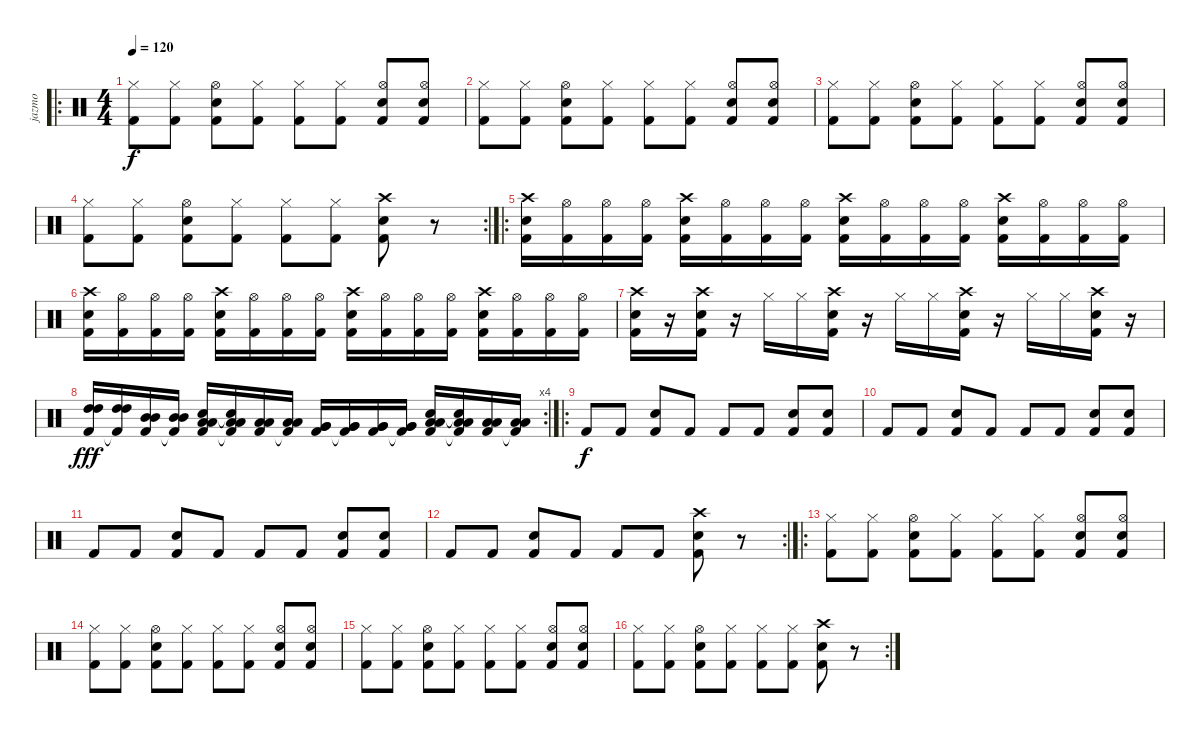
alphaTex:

\track ("jazmo" "jazmo") {instrument percussion}
\staff {score}
\articulation defaults
\ro
\ts (4 4)
\tempo 120
\clef neutral
\ks c
("Hi-Hat (closed)" "Kick (hit) 2").8{dy f} ("Hi-Hat (closed)" "Kick (hit) 2").8 ("Hi-Hat (open)" "Electric Snare (hit)" "Kick (hit) 2").8 ("Hi-Hat (closed)" "Kick (hit) 2").8 ("Hi-Hat (closed)" "Kick (hit) 2").8 ("Hi-Hat (closed)" "Kick (hit) 2").8 ("Hi-Hat (open)" "Electric Snare (hit)" "Kick (hit) 2").8 ("Hi-Hat (open)" "Electric Snare (hit)" "Kick (hit) 2").8 |
("Hi-Hat (closed)" "Kick (hit) 2").8 ("Hi-Hat (closed)" "Kick (hit) 2").8 ("Hi-Hat (open)" "Electric Snare (hit)" "Kick (hit) 2").8 ("Hi-Hat (closed)" "Kick (hit) 2").8 ("Hi-Hat (closed)" "Kick (hit) 2").8 ("Hi-Hat (closed)" "Kick (hit) 2").8 ("Hi-Hat (open)" "Electric Snare (hit)" "Kick (hit) 2").8 ("Hi-Hat (open)" "Electric Snare (hit)" "Kick (hit) 2").8 |
("Hi-Hat (closed)" "Kick (hit) 2").8 ("Hi-Hat (closed)" "Kick (hit) 2").8 ("Hi-Hat (open)" "Electric Snare (hit)" "Kick (hit) 2").8 ("Hi-Hat (closed)" "Kick (hit) 2").8 ("Hi-Hat (closed)" "Kick (hit) 2").8 ("Hi-Hat (closed)" "Kick (hit) 2").8 ("Hi-Hat (open)" "Electric Snare (hit)" "Kick (hit) 2").8 ("Hi-Hat (open)" "Electric Snare (hit)" "Kick (hit) 2").8 |
\rc 2
("Hi-Hat (closed)" "Kick (hit) 2").8 ("Hi-Hat (closed)" "Kick (hit) 2").8 ("Hi-Hat (open)" "Electric Snare (hit)" "Kick (hit) 2").8 ("Hi-Hat (closed)" "Kick (hit) 2").8 ("Hi-Hat (closed)" "Kick (hit) 2").8 ("Hi-Hat (closed)" "Kick (hit) 2").8 ("Crash high (hit)" "Electric Snare (hit)" "Kick (hit) 2").8 r.8 |
\ro
("Crash high (hit)" "Electric Snare (hit)" "Kick (hit) 2").16 ("Hi-Hat (open)" "Kick (hit) 2").16 ("Hi-Hat (open)" "Kick (hit) 2").16 ("Hi-Hat (open)" "Kick (hit) 2").16 ("Crash high (hit)" "Electric Snare (hit)" "Kick (hit) 2").16 ("Hi-Hat (open)" "Kick (hit) 2").16 ("Hi-Hat (open)" "Kick (hit) 2").16 ("Hi-Hat (open)" "Kick (hit) 2").16 ("Crash high (hit)" "Electric Snare (hit)" "Kick (hit) 2").16 ("Hi-Hat (open)" "Kick (hit) 2").16 ("Hi-Hat (open)" "Kick (hit) 2").16 ("Hi-Hat (open)" "Kick (hit) 2").16 ("Crash high (hit)" "Electric Snare (hit)" "Kick (hit) 2").16 ("Hi-Hat (open)" "Kick (hit) 2").16 ("Hi-Hat (open)" "Kick (hit) 2").16 ("Hi-Hat (open)" "Kick (hit) 2").16 |
("Crash high (hit)" "Electric Snare (hit)" "Kick (hit) 2").16 ("Hi-Hat (open)" "Kick (hit) 2").16 ("Hi-Hat (open)" "Kick (hit) 2").16 ("Hi-Hat (open)" "Kick (hit) 2").16 ("Crash high (hit)" "Electric Snare (hit)" "Kick (hit) 2").16 ("Hi-Hat (open)" "Kick (hit) 2").16 ("Hi-Hat (open)" "Kick (hit) 2").16 ("Hi-Hat (open)" "Kick (hit) 2").16 ("Crash high (hit)" "Electric Snare (hit)" "Kick (hit) 2").16 ("Hi-Hat (open)" "Kick (hit) 2").16 ("Hi-Hat (open)" "Kick (hit) 2").16 ("Hi-Hat (open)" "Kick (hit) 2").16 ("Crash high (hit)" "Electric Snare (hit)" "Kick (hit) 2").16 ("Hi-Hat (open)" "Kick (hit) 2").16 ("Hi-Hat (open)" "Kick (hit) 2").16 ("Hi-Hat (open)" "Kick (hit) 2").16 |
("Crash high (hit)" "Electric Snare (hit)" "Kick (hit) 2").16 r.16 ("Crash high (hit)" "Electric Snare (hit)" "Kick (hit) 2").16 r.16 "Hi-Hat (closed)".16 "Hi-Hat (closed)".16 ("Crash high (hit)" "Electric Snare (hit)" "Kick (hit) 2").16 r.16 "Hi-Hat (closed)".16 "Hi-Hat (closed)".16 ("Crash high (hit)" "Electric Snare (hit)" "Kick (hit) 2").16 r.16 "Hi-Hat (closed)".16 "Hi-Hat (closed)".16 ("Crash high (hit)" "Electric Snare (hit)" "Kick (hit) 2").16 r.16 |
\rc 4
("High Tom (hit)" "High Tom (hit)" "Kick (hit) 2").16{dy fff} ("High Tom (hit)" "High Tom (hit)" "Kick (hit) 2"{t}).16 ("Mid Tom (hit)" "Mid Tom (hit)" "Kick (hit) 2").16 ("Mid Tom (hit)" "Mid Tom (hit)" "Kick (hit) 2"{t}).16 ("Low Tom (hit)" "Low Tom (hit)" "Electric Snare (hit)" "Kick (hit) 2").16 ("Low Tom (hit)" "Low Tom (hit)" "Snare (hit)"{t} "Kick (hit) 2"{t}).16 ("Low Tom (hit)" "Low Tom (hit)" "Kick (hit) 2").16 ("Low Tom (hit)" "Low Tom (hit)" "Kick (hit) 2"{t}).16 ("Very Low Tom (hit)" "Very Low Tom (hit)" "Kick (hit) 2").16 ("Very Low Tom (hit)" "Very Low Tom (hit)" "Kick (hit) 2"{t}).16 ("Very Low Tom (hit)" "Very Low Tom (hit)" "Kick (hit) 2").16 ("Very Low Tom (hit)" "Very Low Tom (hit)" "Kick (hit) 2"{t}).16 ("Low Floor Tom (hit)" "Low Floor Tom (hit)" "Electric Snare (hit)" "Kick (hit) 2").16 ("Low Floor Tom (hit)" "Low Floor Tom (hit)" "Electric Snare (hit)"{t} "Kick (hit) 2"{t}).16 ("Low Floor Tom (hit)" "Low Floor Tom (hit)" "Kick (hit) 2").16 ("Low Floor Tom (hit)" "Low Floor Tom (hit)" "Kick (hit) 2"{t}).16 |
\ro "Kick (hit) 2".8{dy f} "Kick (hit) 2".8
("Electric Snare (hit)" "Kick (hit) 2").8 "Kick (hit) 2".8 "Kick (hit) 2".8 "Kick (hit) 2".8 ("Electric Snare (hit)" "Kick (hit) 2").8 ("Electric Snare (hit)" "Kick (hit) 2").8 |
"Kick (hit) 2".8 "Kick (hit) 2".8 ("Electric Snare (hit)" "Kick (hit) 2").8 "Kick (hit) 2".8 "Kick (hit) 2".8 "Kick (hit) 2".8 ("Electric Snare (hit)" "Kick (hit) 2").8 ("Electric Snare (hit)" "Kick (hit) 2").8 |
"Kick (hit) 2".8 "Kick (hit) 2".8 ("Electric Snare (hit)" "Kick (hit) 2").8 "Kick (hit) 2".8 "Kick (hit) 2".8 "Kick (hit) 2".8 ("Electric Snare (hit)" "Kick (hit) 2").8 ("Electric Snare (hit)" "Kick (hit) 2").8 |
\rc 2 "Kick (hit) 2".8 "Kick (hit) 2".8
("Electric Snare (hit)" "Kick (hit) 2").8 "Kick (hit) 2".8 "Kick (hit) 2".8 "Kick (hit) 2".8 ("Crash high (hit)" "Electric Snare (hit)" "Kick (hit) 2").8 r.8 |
\ro
("Hi-Hat (closed)" "Kick (hit) 2").8 ("Hi-Hat (closed)" "Kick (hit) 2").8 ("Hi-Hat (open)" "Electric Snare (hit)" "Kick (hit) 2").8 ("Hi-Hat (closed)" "Kick (hit) 2").8 ("Hi-Hat (closed)" "Kick (hit) 2").8 ("Hi-Hat (closed)" "Kick (hit) 2").8 ("Hi-Hat (open)" "Electric Snare (hit)" "Kick (hit) 2").8 ("Hi-Hat (open)" "Electric Snare (hit)" "Kick (hit) 2").8 |
("Hi-Hat (closed)" "Kick (hit) 2").8 ("Hi-Hat (closed)" "Kick (hit) 2").8 ("Hi-Hat (open)" "Electric Snare (hit)" "Kick (hit) 2").8 ("Hi-Hat (closed)" "Kick (hit) 2").8 ("Hi-Hat (closed)" "Kick (hit) 2").8 ("Hi-Hat (closed)" "Kick (hit) 2").8 ("Hi-Hat (open)" "Electric Snare (hit)" "Kick (hit) 2").8 ("Hi-Hat (open)" "Electric Snare (hit)" "Kick (hit) 2").8 |
("Hi-Hat (closed)" "Kick (hit) 2").8 ("Hi-Hat (closed)" "Kick (hit) 2").8 ("Hi-Hat (open)" "Electric Snare (hit)" "Kick (hit) 2").8 ("Hi-Hat (closed)" "Kick (hit) 2").8 ("Hi-Hat (closed)" "Kick (hit) 2").8 ("Hi-Hat (closed)" "Kick (hit) 2").8 ("Hi-Hat (open)" "Electric Snare (hit)" "Kick (hit) 2").8 ("Hi-Hat (open)" "Electric Snare (hit)" "Kick (hit) 2").8 |
\rc 2
("Hi-Hat (closed)" "Kick (hit) 2").8 ("Hi-Hat (closed)" "Kick (hit) 2").8 ("Hi-Hat (open)" "Electric Snare (hit)" "Kick (hit) 2").8 ("Hi-Hat (closed)" "Kick (hit) 2").8 ("Hi-Hat (closed)" "Kick (hit) 2").8 ("Hi-Hat (closed)" "Kick (hit) 2").8 ("Crash high (hit)" "Electric Snare (hit)" "Kick (hit) 2").8 r.8
